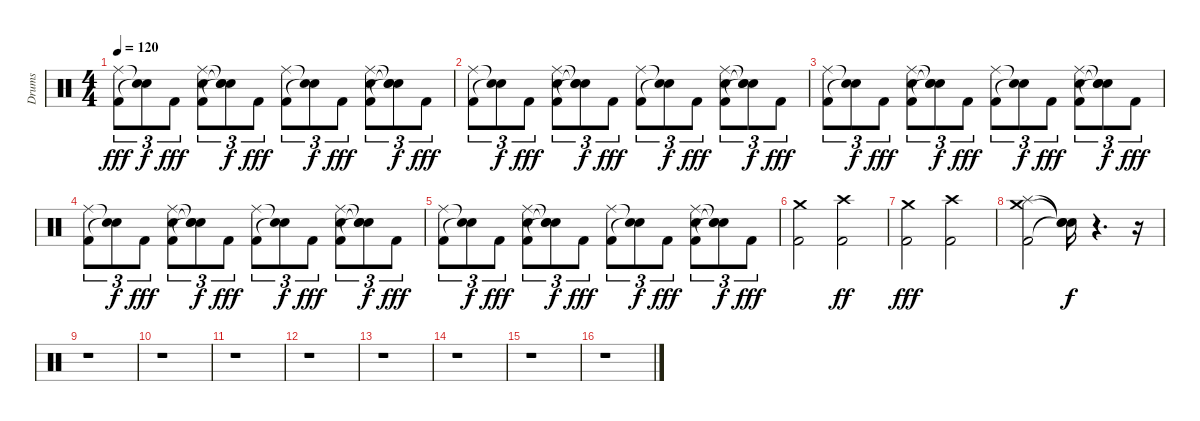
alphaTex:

\track ("Drums" "Drums") {instrument percussion}
\staff {score}
\articulation defaults
\ts (4 4)
\tempo 120
\clef neutral
\ks c
("Ride (middle)" "Kick (hit) 2").8{tu (3 2) dy fff} ("Snare (hit)"{t} "Snare (hit)"{t}).8{tu (3 2) dy f} "Kick (hit) 2".8{tu (3 2) dy fff} ("Kick (hit) 2" "Ride (middle)" "Snare (hit) 2").8{tu (3 2)} ("Snare (hit)"{t} "Snare (hit)"{t} "Snare (hit)"{t}).8{tu (3 2) dy f} "Kick (hit) 2".8{tu (3 2) dy fff} ("Ride (middle)" "Kick (hit) 2").8{tu (3 2)} ("Snare (hit)"{t} "Snare (hit)"{t}).8{tu (3 2) dy f} "Kick (hit) 2".8{tu (3 2) dy fff} ("Snare (hit) 2" "Ride (middle)" "Kick (hit) 2").8{tu (3 2)} ("Snare (hit)"{t} "Snare (hit)"{t} "Snare (hit)"{t}).8{tu (3 2) dy f} "Kick (hit) 2".8{tu (3 2) dy fff} |
("Ride (middle)" "Kick (hit) 2").8{tu (3 2)} ("Snare (hit)"{t} "Snare (hit)"{t}).8{tu (3 2) dy f} "Kick (hit) 2".8{tu (3 2) dy fff} ("Snare (hit) 2" "Ride (middle)" "Kick (hit) 2").8{tu (3 2)} ("Snare (hit)"{t} "Snare (hit)"{t} "Snare (hit)"{t}).8{tu (3 2) dy f} "Kick (hit) 2".8{tu (3 2) dy fff} ("Ride (middle)" "Kick (hit) 2").8{tu (3 2)} ("Snare (hit)"{t} "Snare (hit)"{t}).8{tu (3 2) dy f} "Kick (hit) 2".8{tu (3 2) dy fff} ("Kick (hit) 2" "Ride (middle)" "Snare (hit) 2").8{tu (3 2)} ("Snare (hit)"{t} "Snare (hit)"{t} "Snare (hit)"{t}).8{tu (3 2) dy f} "Kick (hit) 2".8{tu (3 2) dy fff} |
("Ride (middle)" "Kick (hit) 2").8{tu (3 2)} ("Snare (hit)"{t} "Snare (hit)"{t}).8{tu (3 2) dy f} "Kick (hit) 2".8{tu (3 2) dy fff} ("Snare (hit) 2" "Ride (middle)" "Kick (hit) 2").8{tu (3 2)} ("Snare (hit)"{t} "Snare (hit)"{t} "Snare (hit)"{t}).8{tu (3 2) dy f} "Kick (hit) 2".8{tu (3 2) dy fff} ("Kick (hit) 2" "Ride (middle)").8{tu (3 2)} ("Snare (hit)"{t} "Snare (hit)"{t}).8{tu (3 2) dy f} "Kick (hit) 2".8{tu (3 2) dy fff} ("Snare (hit) 2" "Ride (middle)" "Kick (hit) 2").8{tu (3 2)} ("Snare (hit)"{t} "Snare (hit)"{t} "Snare (hit)"{t}).8{tu (3 2) dy f} "Kick (hit) 2".8{tu (3 2) dy fff} |
("Kick (hit) 2" "Ride (middle)").8{tu (3 2)} ("Snare (hit)"{t} "Snare (hit)"{t}).8{tu (3 2) dy f} "Kick (hit) 2".8{tu (3 2) dy fff} ("Snare (hit) 2" "Ride (middle)" "Kick (hit) 2").8{tu (3 2)} ("Snare (hit)"{t} "Snare (hit)"{t} "Snare (hit)"{t}).8{tu (3 2) dy f} "Kick (hit) 2".8{tu (3 2) dy fff} ("Ride (middle)" "Kick (hit) 2").8{tu (3 2)} ("Snare (hit)"{t} "Snare (hit)"{t}).8{tu (3 2) dy f} "Kick (hit) 2".8{tu (3 2) dy fff} ("Snare (hit) 2" "Ride (middle)" "Kick (hit) 2").8{tu (3 2)} ("Snare (hit)"{t} "Snare (hit)"{t} "Snare (hit)"{t}).8{tu (3 2) dy f} "Kick (hit) 2".8{tu (3 2) dy fff} |
("Kick (hit) 2" "Ride (middle)").8{tu (3 2)} ("Snare (hit)"{t} "Snare (hit)"{t}).8{tu (3 2) dy f} "Kick (hit) 2".8{tu (3 2) dy fff} ("Snare (hit) 2" "Ride (middle)" "Kick (hit) 2").8{tu (3 2)} ("Snare (hit)"{t} "Snare (hit)"{t} "Snare (hit)"{t}).8{tu (3 2) dy f} "Kick (hit) 2".8{tu (3 2) dy fff} ("Kick (hit) 2" "Ride (middle)").8{tu (3 2)} ("Snare (hit)"{t} "Snare (hit)"{t}).8{tu (3 2) dy f} "Kick (hit) 2".8{tu (3 2) dy fff} ("Snare (hit) 2" "Ride (middle)" "Kick (hit) 2").8{tu (3 2)} ("Snare (hit)"{t} "Snare (hit)"{t} "Snare (hit)"{t}).8{tu (3 2) dy f} "Kick (hit) 2".8{tu (3 2) dy fff} |
("Kick (hit) 2" "Crash medium (hit)").2 ("Crash high (hit)" "Kick (hit) 2").2{dy ff} |
("Crash medium (hit)" "Kick (hit) 2").2{dy fff} ("Crash high (hit)" "Kick (hit) 2").2 |
("Crash medium (hit)" "Splash (hit)" "Kick (hit) 2").2 ("Snare (hit)"{t} "Snare (hit)"{t} "Snare (hit)"{t}).16{dy f} r.4{d} r.16 |
r.1 |
r.1 |
r.1 |
r.1 |
r.1 |
r.1 |
r.1 |
r.1
